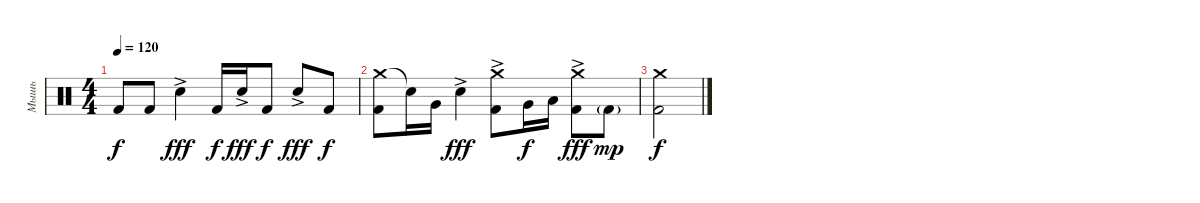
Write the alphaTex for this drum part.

\track ("Мышь" "Мышь") {instrument percussion}
\staff {score}
\articulation defaults
\ts (4 4)
\tempo 120
\clef neutral
\ks c "Kick (hit) 2".8{dy f} "Kick (hit) 2".8 "Electric Snare (hit)"{ac}.4{dy fff} "Kick (hit) 2".16{dy f} "Electric Snare (hit)"{ac}.16{dy fff} "Kick (hit) 2".8{dy f} "Electric Snare (hit)"{ac}.8{dy fff} "Kick (hit) 2".8{dy f}
|
("Crash medium (hit)" "Kick (hit) 2").8 "Snare (hit)"{t}.16 "Very Low Tom (hit)".16 "Electric Snare (hit)"{ac}.4{dy fff} ("Crash medium (hit)" "Kick (hit) 2"{ac}).8 "Very Low Tom (hit)".16{dy f} "Low Tom (hit)".16 ("Crash medium (hit)" "Kick (hit) 2"{ac}).8{dy fff} "Kick (hit) 2"{g}.8{dy mp} |
("Crash medium (hit)" "Kick (hit) 2").2{dy f}
